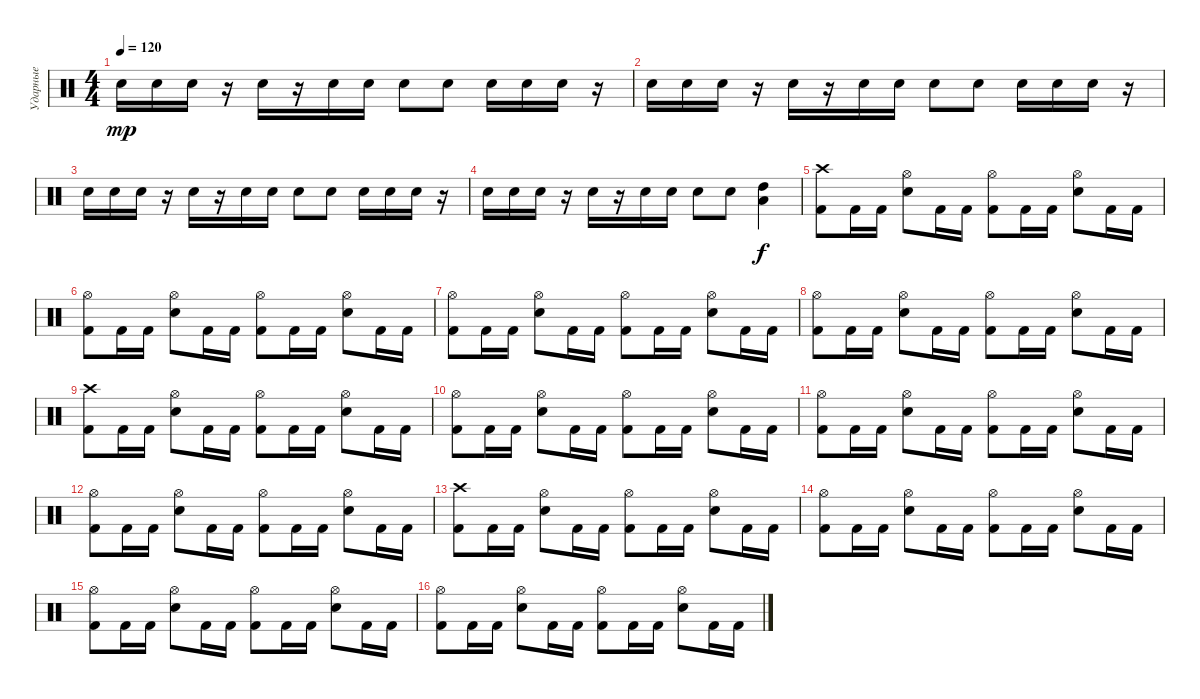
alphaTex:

\track ("Ударные" "Ударные") {instrument percussion}
\staff {score}
\articulation defaults
\ts (4 4)
\tempo 120
\clef neutral
\ks c "Snare (hit) 2".16{dy mp} "Snare (hit) 2".16 "Snare (hit) 2".16
r.16 "Snare (hit) 2".16 r.16 "Snare (hit) 2".16 "Snare (hit) 2".16 "Snare (hit) 2".8 "Snare (hit) 2".8 "Snare (hit) 2".16 "Snare (hit) 2".16 "Snare (hit) 2".16 r.16 |
"Snare (hit) 2".16 "Snare (hit) 2".16 "Snare (hit) 2".16 r.16 "Snare (hit) 2".16 r.16 "Snare (hit) 2".16 "Snare (hit) 2".16 "Snare (hit) 2".8 "Snare (hit) 2".8 "Snare (hit) 2".16 "Snare (hit) 2".16 "Snare (hit) 2".16 r.16 |
"Snare (hit) 2".16 "Snare (hit) 2".16 "Snare (hit) 2".16 r.16 "Snare (hit) 2".16 r.16 "Snare (hit) 2".16 "Snare (hit) 2".16 "Snare (hit) 2".8 "Snare (hit) 2".8 "Snare (hit) 2".16 "Snare (hit) 2".16 "Snare (hit) 2".16 r.16 |
"Snare (hit) 2".16 "Snare (hit) 2".16 "Snare (hit) 2".16 r.16 "Snare (hit) 2".16 r.16 "Snare (hit) 2".16 "Snare (hit) 2".16 "Snare (hit) 2".8 "Snare (hit) 2".8 ("High Tom (hit)" "Low Tom (hit)").4{dy f} |
("Kick (hit) 2" "Crash high (hit)").8 "Kick (hit) 2".16 "Kick (hit) 2".16 ("Snare (hit) 2" "Hi-Hat (open)").8 "Kick (hit) 2".16 "Kick (hit) 2".16 ("Kick (hit) 2" "Hi-Hat (open)").8 "Kick (hit) 2".16 "Kick (hit) 2".16 ("Snare (hit) 2" "Hi-Hat (open)").8 "Kick (hit) 2".16 "Kick (hit) 2".16 |
("Kick (hit) 2" "Hi-Hat (open)").8 "Kick (hit) 2".16 "Kick (hit) 2".16 ("Snare (hit) 2" "Hi-Hat (open)").8 "Kick (hit) 2".16 "Kick (hit) 2".16 ("Kick (hit) 2" "Hi-Hat (open)").8 "Kick (hit) 2".16 "Kick (hit) 2".16 ("Snare (hit) 2" "Hi-Hat (open)").8 "Kick (hit) 2".16 "Kick (hit) 2".16 |
("Kick (hit) 2" "Hi-Hat (open)").8 "Kick (hit) 2".16 "Kick (hit) 2".16 ("Snare (hit) 2" "Hi-Hat (open)").8 "Kick (hit) 2".16 "Kick (hit) 2".16 ("Kick (hit) 2" "Hi-Hat (open)").8 "Kick (hit) 2".16 "Kick (hit) 2".16 ("Snare (hit) 2" "Hi-Hat (open)").8 "Kick (hit) 2".16 "Kick (hit) 2".16 |
("Kick (hit) 2" "Hi-Hat (open)").8 "Kick (hit) 2".16 "Kick (hit) 2".16 ("Snare (hit) 2" "Hi-Hat (open)").8 "Kick (hit) 2".16 "Kick (hit) 2".16 ("Kick (hit) 2" "Hi-Hat (open)").8 "Kick (hit) 2".16 "Kick (hit) 2".16 ("Snare (hit) 2" "Hi-Hat (open)").8 "Kick (hit) 2".16 "Kick (hit) 2".16 |
("Kick (hit) 2" "Crash high (hit)").8 "Kick (hit) 2".16 "Kick (hit) 2".16 ("Snare (hit) 2" "Hi-Hat (open)").8 "Kick (hit) 2".16 "Kick (hit) 2".16 ("Kick (hit) 2" "Hi-Hat (open)").8 "Kick (hit) 2".16 "Kick (hit) 2".16 ("Snare (hit) 2" "Hi-Hat (open)").8 "Kick (hit) 2".16 "Kick (hit) 2".16 |
("Kick (hit) 2" "Hi-Hat (open)").8 "Kick (hit) 2".16 "Kick (hit) 2".16 ("Snare (hit) 2" "Hi-Hat (open)").8 "Kick (hit) 2".16 "Kick (hit) 2".16 ("Kick (hit) 2" "Hi-Hat (open)").8 "Kick (hit) 2".16 "Kick (hit) 2".16 ("Snare (hit) 2" "Hi-Hat (open)").8 "Kick (hit) 2".16 "Kick (hit) 2".16 |
("Kick (hit) 2" "Hi-Hat (open)").8 "Kick (hit) 2".16 "Kick (hit) 2".16 ("Snare (hit) 2" "Hi-Hat (open)").8 "Kick (hit) 2".16 "Kick (hit) 2".16 ("Kick (hit) 2" "Hi-Hat (open)").8 "Kick (hit) 2".16 "Kick (hit) 2".16 ("Snare (hit) 2" "Hi-Hat (open)").8 "Kick (hit) 2".16 "Kick (hit) 2".16 |
("Kick (hit) 2" "Hi-Hat (open)").8 "Kick (hit) 2".16 "Kick (hit) 2".16 ("Snare (hit) 2" "Hi-Hat (open)").8 "Kick (hit) 2".16 "Kick (hit) 2".16 ("Kick (hit) 2" "Hi-Hat (open)").8 "Kick (hit) 2".16 "Kick (hit) 2".16 ("Snare (hit) 2" "Hi-Hat (open)").8 "Kick (hit) 2".16 "Kick (hit) 2".16 |
("Kick (hit) 2" "Crash high (hit)").8 "Kick (hit) 2".16 "Kick (hit) 2".16 ("Snare (hit) 2" "Hi-Hat (open)").8 "Kick (hit) 2".16 "Kick (hit) 2".16 ("Kick (hit) 2" "Hi-Hat (open)").8 "Kick (hit) 2".16 "Kick (hit) 2".16 ("Snare (hit) 2" "Hi-Hat (open)").8 "Kick (hit) 2".16 "Kick (hit) 2".16 |
("Kick (hit) 2" "Hi-Hat (open)").8 "Kick (hit) 2".16 "Kick (hit) 2".16 ("Snare (hit) 2" "Hi-Hat (open)").8 "Kick (hit) 2".16 "Kick (hit) 2".16 ("Kick (hit) 2" "Hi-Hat (open)").8 "Kick (hit) 2".16 "Kick (hit) 2".16 ("Snare (hit) 2" "Hi-Hat (open)").8 "Kick (hit) 2".16 "Kick (hit) 2".16 |
("Kick (hit) 2" "Hi-Hat (open)").8 "Kick (hit) 2".16 "Kick (hit) 2".16 ("Snare (hit) 2" "Hi-Hat (open)").8 "Kick (hit) 2".16 "Kick (hit) 2".16 ("Kick (hit) 2" "Hi-Hat (open)").8 "Kick (hit) 2".16 "Kick (hit) 2".16 ("Snare (hit) 2" "Hi-Hat (open)").8 "Kick (hit) 2".16 "Kick (hit) 2".16 |
("Kick (hit) 2" "Hi-Hat (open)").8 "Kick (hit) 2".16 "Kick (hit) 2".16 ("Snare (hit) 2" "Hi-Hat (open)").8 "Kick (hit) 2".16 "Kick (hit) 2".16 ("Kick (hit) 2" "Hi-Hat (open)").8 "Kick (hit) 2".16 "Kick (hit) 2".16 ("Snare (hit) 2" "Hi-Hat (open)").8 "Kick (hit) 2".16 "Kick (hit) 2".16
